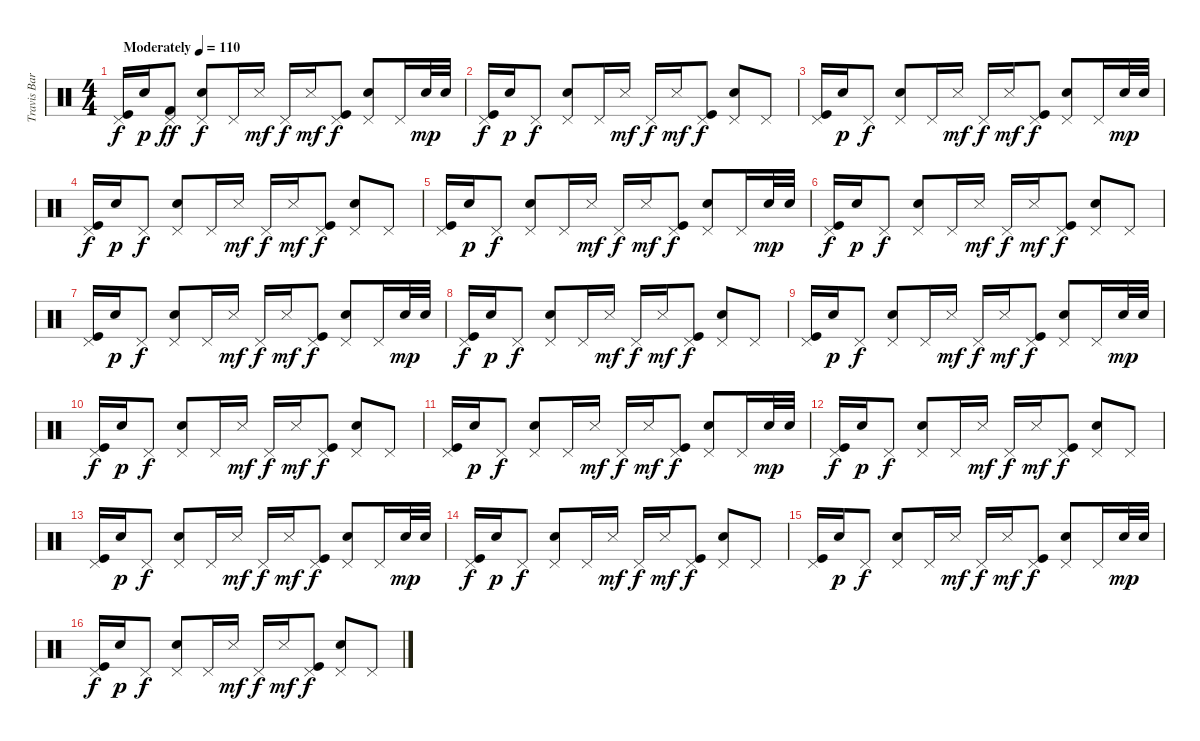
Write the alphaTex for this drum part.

\track ("Travis Barker Drums" "Travis Bar") {instrument percussion}
\staff {score}
\articulation defaults
\ts (4 4)
\tempo (110 "Moderately")
\clef neutral
\ks c
("Pedal Hi-Hat (hit)" "Kick (hit)").16{dy f} "Snare (hit) 2".16{dy p} ("Pedal Hi-Hat (hit)" "Kick (hit) 2").8{dy ff} ("Pedal Hi-Hat (hit)" "Snare (hit) 2").8{dy f} "Pedal Hi-Hat (hit)".16 "Snare (side stick) 3".16{dy mf} "Pedal Hi-Hat (hit)".16{dy f} "Snare (side stick) 3".16{dy mf} ("Pedal Hi-Hat (hit)" "Kick (hit)").8{dy f} ("Pedal Hi-Hat (hit)" "Snare (hit) 2").8 "Pedal Hi-Hat (hit)".16 "Snare (hit) 2".32{dy mp} "Snare (hit) 2".32 |
("Pedal Hi-Hat (hit)" "Kick (hit)").16{dy f} "Snare (hit) 2".16{dy p} "Pedal Hi-Hat (hit)".8{dy f} ("Pedal Hi-Hat (hit)" "Snare (hit) 2").8 "Pedal Hi-Hat (hit)".16 "Snare (side stick) 3".16{dy mf} "Pedal Hi-Hat (hit)".16{dy f} "Snare (side stick) 3".16{dy mf} ("Pedal Hi-Hat (hit)" "Kick (hit)").8{dy f} ("Pedal Hi-Hat (hit)" "Snare (hit) 2").8 "Pedal Hi-Hat (hit)".8 |
("Pedal Hi-Hat (hit)" "Kick (hit)").16 "Snare (hit) 2".16{dy p} "Pedal Hi-Hat (hit)".8{dy f} ("Pedal Hi-Hat (hit)" "Snare (hit) 2").8 "Pedal Hi-Hat (hit)".16 "Snare (side stick) 3".16{dy mf} "Pedal Hi-Hat (hit)".16{dy f} "Snare (side stick) 3".16{dy mf} ("Pedal Hi-Hat (hit)" "Kick (hit)").8{dy f} ("Pedal Hi-Hat (hit)" "Snare (hit) 2").8 "Pedal Hi-Hat (hit)".16 "Snare (hit) 2".32{dy mp} "Snare (hit) 2".32 |
("Pedal Hi-Hat (hit)" "Kick (hit)").16{dy f} "Snare (hit) 2".16{dy p} "Pedal Hi-Hat (hit)".8{dy f} ("Pedal Hi-Hat (hit)" "Snare (hit) 2").8 "Pedal Hi-Hat (hit)".16 "Snare (side stick) 3".16{dy mf} "Pedal Hi-Hat (hit)".16{dy f} "Snare (side stick) 3".16{dy mf} ("Pedal Hi-Hat (hit)" "Kick (hit)").8{dy f} ("Pedal Hi-Hat (hit)" "Snare (hit) 2").8 "Pedal Hi-Hat (hit)".8 |
("Pedal Hi-Hat (hit)" "Kick (hit)").16 "Snare (hit) 2".16{dy p} "Pedal Hi-Hat (hit)".8{dy f} ("Pedal Hi-Hat (hit)" "Snare (hit) 2").8 "Pedal Hi-Hat (hit)".16 "Snare (side stick) 3".16{dy mf} "Pedal Hi-Hat (hit)".16{dy f} "Snare (side stick) 3".16{dy mf} ("Pedal Hi-Hat (hit)" "Kick (hit)").8{dy f} ("Pedal Hi-Hat (hit)" "Snare (hit) 2").8 "Pedal Hi-Hat (hit)".16 "Snare (hit) 2".32{dy mp} "Snare (hit) 2".32 |
("Pedal Hi-Hat (hit)" "Kick (hit)").16{dy f} "Snare (hit) 2".16{dy p} "Pedal Hi-Hat (hit)".8{dy f} ("Pedal Hi-Hat (hit)" "Snare (hit) 2").8 "Pedal Hi-Hat (hit)".16 "Snare (side stick) 3".16{dy mf} "Pedal Hi-Hat (hit)".16{dy f} "Snare (side stick) 3".16{dy mf} ("Pedal Hi-Hat (hit)" "Kick (hit)").8{dy f} ("Pedal Hi-Hat (hit)" "Snare (hit) 2").8 "Pedal Hi-Hat (hit)".8 |
("Pedal Hi-Hat (hit)" "Kick (hit)").16 "Snare (hit) 2".16{dy p} "Pedal Hi-Hat (hit)".8{dy f} ("Pedal Hi-Hat (hit)" "Snare (hit) 2").8 "Pedal Hi-Hat (hit)".16 "Snare (side stick) 3".16{dy mf} "Pedal Hi-Hat (hit)".16{dy f} "Snare (side stick) 3".16{dy mf} ("Pedal Hi-Hat (hit)" "Kick (hit)").8{dy f} ("Pedal Hi-Hat (hit)" "Snare (hit) 2").8 "Pedal Hi-Hat (hit)".16 "Snare (hit) 2".32{dy mp} "Snare (hit) 2".32 |
("Pedal Hi-Hat (hit)" "Kick (hit)").16{dy f} "Snare (hit) 2".16{dy p} "Pedal Hi-Hat (hit)".8{dy f} ("Pedal Hi-Hat (hit)" "Snare (hit) 2").8 "Pedal Hi-Hat (hit)".16 "Snare (side stick) 3".16{dy mf} "Pedal Hi-Hat (hit)".16{dy f} "Snare (side stick) 3".16{dy mf} ("Pedal Hi-Hat (hit)" "Kick (hit)").8{dy f} ("Pedal Hi-Hat (hit)" "Snare (hit) 2").8 "Pedal Hi-Hat (hit)".8 |
("Pedal Hi-Hat (hit)" "Kick (hit)").16 "Snare (hit) 2".16{dy p} "Pedal Hi-Hat (hit)".8{dy f} ("Pedal Hi-Hat (hit)" "Snare (hit) 2").8 "Pedal Hi-Hat (hit)".16 "Snare (side stick) 3".16{dy mf} "Pedal Hi-Hat (hit)".16{dy f} "Snare (side stick) 3".16{dy mf} ("Pedal Hi-Hat (hit)" "Kick (hit)").8{dy f} ("Pedal Hi-Hat (hit)" "Snare (hit) 2").8 "Pedal Hi-Hat (hit)".16 "Snare (hit) 2".32{dy mp} "Snare (hit) 2".32 |
("Pedal Hi-Hat (hit)" "Kick (hit)").16{dy f} "Snare (hit) 2".16{dy p} "Pedal Hi-Hat (hit)".8{dy f} ("Pedal Hi-Hat (hit)" "Snare (hit) 2").8 "Pedal Hi-Hat (hit)".16 "Snare (side stick) 3".16{dy mf} "Pedal Hi-Hat (hit)".16{dy f} "Snare (side stick) 3".16{dy mf} ("Pedal Hi-Hat (hit)" "Kick (hit)").8{dy f} ("Pedal Hi-Hat (hit)" "Snare (hit) 2").8 "Pedal Hi-Hat (hit)".8 |
("Pedal Hi-Hat (hit)" "Kick (hit)").16 "Snare (hit) 2".16{dy p} "Pedal Hi-Hat (hit)".8{dy f} ("Pedal Hi-Hat (hit)" "Snare (hit) 2").8 "Pedal Hi-Hat (hit)".16 "Snare (side stick) 3".16{dy mf} "Pedal Hi-Hat (hit)".16{dy f} "Snare (side stick) 3".16{dy mf} ("Pedal Hi-Hat (hit)" "Kick (hit)").8{dy f} ("Pedal Hi-Hat (hit)" "Snare (hit) 2").8 "Pedal Hi-Hat (hit)".16 "Snare (hit) 2".32{dy mp} "Snare (hit) 2".32 |
("Pedal Hi-Hat (hit)" "Kick (hit)").16{dy f} "Snare (hit) 2".16{dy p} "Pedal Hi-Hat (hit)".8{dy f} ("Pedal Hi-Hat (hit)" "Snare (hit) 2").8 "Pedal Hi-Hat (hit)".16 "Snare (side stick) 3".16{dy mf} "Pedal Hi-Hat (hit)".16{dy f} "Snare (side stick) 3".16{dy mf} ("Pedal Hi-Hat (hit)" "Kick (hit)").8{dy f} ("Pedal Hi-Hat (hit)" "Snare (hit) 2").8 "Pedal Hi-Hat (hit)".8 |
("Pedal Hi-Hat (hit)" "Kick (hit)").16 "Snare (hit) 2".16{dy p} "Pedal Hi-Hat (hit)".8{dy f} ("Pedal Hi-Hat (hit)" "Snare (hit) 2").8 "Pedal Hi-Hat (hit)".16 "Snare (side stick) 3".16{dy mf} "Pedal Hi-Hat (hit)".16{dy f} "Snare (side stick) 3".16{dy mf} ("Pedal Hi-Hat (hit)" "Kick (hit)").8{dy f} ("Pedal Hi-Hat (hit)" "Snare (hit) 2").8 "Pedal Hi-Hat (hit)".16 "Snare (hit) 2".32{dy mp} "Snare (hit) 2".32 |
("Pedal Hi-Hat (hit)" "Kick (hit)").16{dy f} "Snare (hit) 2".16{dy p} "Pedal Hi-Hat (hit)".8{dy f} ("Pedal Hi-Hat (hit)" "Snare (hit) 2").8 "Pedal Hi-Hat (hit)".16 "Snare (side stick) 3".16{dy mf} "Pedal Hi-Hat (hit)".16{dy f} "Snare (side stick) 3".16{dy mf} ("Pedal Hi-Hat (hit)" "Kick (hit)").8{dy f} ("Pedal Hi-Hat (hit)" "Snare (hit) 2").8 "Pedal Hi-Hat (hit)".8 |
("Pedal Hi-Hat (hit)" "Kick (hit)").16 "Snare (hit) 2".16{dy p} "Pedal Hi-Hat (hit)".8{dy f} ("Pedal Hi-Hat (hit)" "Snare (hit) 2").8 "Pedal Hi-Hat (hit)".16 "Snare (side stick) 3".16{dy mf} "Pedal Hi-Hat (hit)".16{dy f} "Snare (side stick) 3".16{dy mf} ("Pedal Hi-Hat (hit)" "Kick (hit)").8{dy f} ("Pedal Hi-Hat (hit)" "Snare (hit) 2").8 "Pedal Hi-Hat (hit)".16 "Snare (hit) 2".32{dy mp} "Snare (hit) 2".32 |
("Pedal Hi-Hat (hit)" "Kick (hit)").16{dy f} "Snare (hit) 2".16{dy p} "Pedal Hi-Hat (hit)".8{dy f} ("Pedal Hi-Hat (hit)" "Snare (hit) 2").8 "Pedal Hi-Hat (hit)".16 "Snare (side stick) 3".16{dy mf} "Pedal Hi-Hat (hit)".16{dy f} "Snare (side stick) 3".16{dy mf} ("Pedal Hi-Hat (hit)" "Kick (hit)").8{dy f} ("Pedal Hi-Hat (hit)" "Snare (hit) 2").8 "Pedal Hi-Hat (hit)".8
